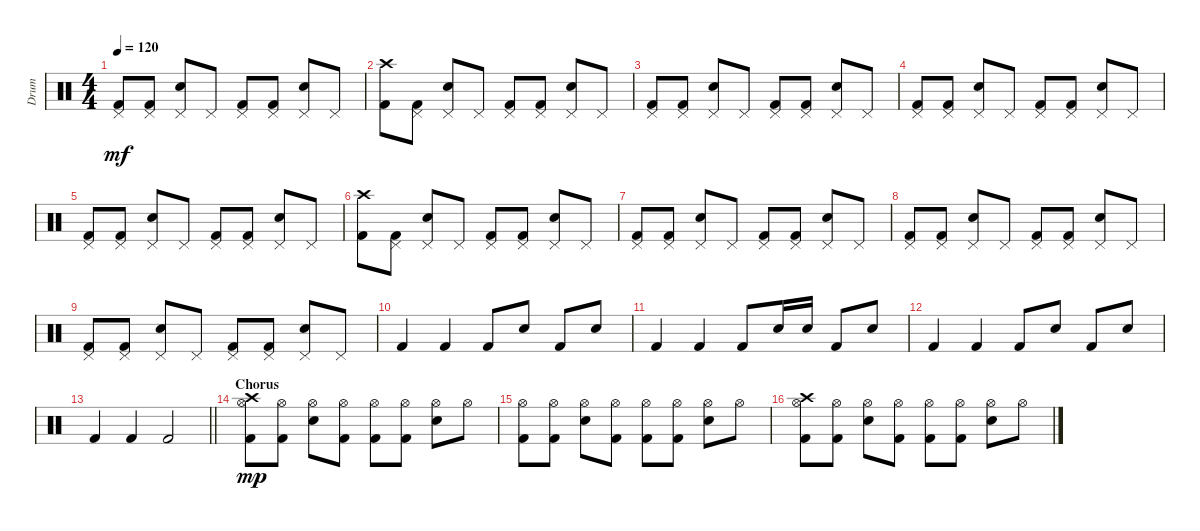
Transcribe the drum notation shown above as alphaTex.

\track ("Drum" "Drum") {instrument percussion}
\staff {score}
\articulation defaults
\ts (4 4)
\tempo 120
\clef neutral
\ks c
("Pedal Hi-Hat (hit)" "Kick (hit) 2").8{dy mf} ("Pedal Hi-Hat (hit)" "Kick (hit) 2").8 ("Pedal Hi-Hat (hit)" "Snare (hit) 2").8 "Pedal Hi-Hat (hit)".8 ("Pedal Hi-Hat (hit)" "Kick (hit) 2").8 ("Pedal Hi-Hat (hit)" "Kick (hit) 2").8 ("Pedal Hi-Hat (hit)" "Snare (hit) 2").8 "Pedal Hi-Hat (hit)".8 |
("Crash high (hit)" "Kick (hit) 2").8 ("Pedal Hi-Hat (hit)" "Kick (hit) 2").8 ("Pedal Hi-Hat (hit)" "Snare (hit) 2").8 "Pedal Hi-Hat (hit)".8 ("Pedal Hi-Hat (hit)" "Kick (hit) 2").8 ("Pedal Hi-Hat (hit)" "Kick (hit) 2").8 ("Pedal Hi-Hat (hit)" "Snare (hit) 2").8 "Pedal Hi-Hat (hit)".8 |
("Pedal Hi-Hat (hit)" "Kick (hit) 2").8 ("Pedal Hi-Hat (hit)" "Kick (hit) 2").8 ("Pedal Hi-Hat (hit)" "Snare (hit) 2").8 "Pedal Hi-Hat (hit)".8 ("Pedal Hi-Hat (hit)" "Kick (hit) 2").8 ("Pedal Hi-Hat (hit)" "Kick (hit) 2").8 ("Pedal Hi-Hat (hit)" "Snare (hit) 2").8 "Pedal Hi-Hat (hit)".8 |
("Pedal Hi-Hat (hit)" "Kick (hit) 2").8 ("Pedal Hi-Hat (hit)" "Kick (hit) 2").8 ("Pedal Hi-Hat (hit)" "Snare (hit) 2").8 "Pedal Hi-Hat (hit)".8 ("Pedal Hi-Hat (hit)" "Kick (hit) 2").8 ("Pedal Hi-Hat (hit)" "Kick (hit) 2").8 ("Pedal Hi-Hat (hit)" "Snare (hit) 2").8 "Pedal Hi-Hat (hit)".8 |
("Pedal Hi-Hat (hit)" "Kick (hit) 2").8 ("Pedal Hi-Hat (hit)" "Kick (hit) 2").8 ("Pedal Hi-Hat (hit)" "Snare (hit) 2").8 "Pedal Hi-Hat (hit)".8 ("Pedal Hi-Hat (hit)" "Kick (hit) 2").8 ("Pedal Hi-Hat (hit)" "Kick (hit) 2").8 ("Pedal Hi-Hat (hit)" "Snare (hit) 2").8 "Pedal Hi-Hat (hit)".8 |
("Crash high (hit)" "Kick (hit) 2").8 ("Pedal Hi-Hat (hit)" "Kick (hit) 2").8 ("Pedal Hi-Hat (hit)" "Snare (hit) 2").8 "Pedal Hi-Hat (hit)".8 ("Pedal Hi-Hat (hit)" "Kick (hit) 2").8 ("Pedal Hi-Hat (hit)" "Kick (hit) 2").8 ("Pedal Hi-Hat (hit)" "Snare (hit) 2").8 "Pedal Hi-Hat (hit)".8 |
("Pedal Hi-Hat (hit)" "Kick (hit) 2").8 ("Pedal Hi-Hat (hit)" "Kick (hit) 2").8 ("Pedal Hi-Hat (hit)" "Snare (hit) 2").8 "Pedal Hi-Hat (hit)".8 ("Pedal Hi-Hat (hit)" "Kick (hit) 2").8 ("Pedal Hi-Hat (hit)" "Kick (hit) 2").8 ("Pedal Hi-Hat (hit)" "Snare (hit) 2").8 "Pedal Hi-Hat (hit)".8 |
("Pedal Hi-Hat (hit)" "Kick (hit) 2").8 ("Pedal Hi-Hat (hit)" "Kick (hit) 2").8 ("Pedal Hi-Hat (hit)" "Snare (hit) 2").8 "Pedal Hi-Hat (hit)".8 ("Pedal Hi-Hat (hit)" "Kick (hit) 2").8 ("Pedal Hi-Hat (hit)" "Kick (hit) 2").8 ("Pedal Hi-Hat (hit)" "Snare (hit) 2").8 "Pedal Hi-Hat (hit)".8 |
("Pedal Hi-Hat (hit)" "Kick (hit) 2").8 ("Pedal Hi-Hat (hit)" "Kick (hit) 2").8 ("Pedal Hi-Hat (hit)" "Snare (hit) 2").8 "Pedal Hi-Hat (hit)".8 ("Pedal Hi-Hat (hit)" "Kick (hit) 2").8 ("Pedal Hi-Hat (hit)" "Kick (hit) 2").8 ("Pedal Hi-Hat (hit)" "Snare (hit) 2").8 "Pedal Hi-Hat (hit)".8 |
"Kick (hit) 2".4 "Kick (hit) 2".4 "Kick (hit) 2".8 "Snare (hit) 2".8 "Kick (hit) 2".8 "Snare (hit) 2".8 |
"Kick (hit) 2".4 "Kick (hit) 2".4 "Kick (hit) 2".8 "Snare (hit) 2".16 "Snare (hit) 2".16 "Kick (hit) 2".8 "Snare (hit) 2".8 |
"Kick (hit) 2".4 "Kick (hit) 2".4 "Kick (hit) 2".8 "Snare (hit) 2".8 "Kick (hit) 2".8 "Snare (hit) 2".8 |
\barLineRight lightlight "Kick (hit) 2".4 "Kick (hit) 2".4 "Kick (hit) 2".2
|
\section ("" "Chorus")
("Hi-Hat (open)" "Crash high (hit)" "Kick (hit) 2").8{dy mp} ("Hi-Hat (open)" "Kick (hit) 2").8 ("Hi-Hat (open)" "Snare (hit) 2").8 ("Hi-Hat (open)" "Kick (hit) 2").8 ("Hi-Hat (open)" "Kick (hit) 2").8 ("Hi-Hat (open)" "Kick (hit) 2").8 ("Hi-Hat (open)" "Snare (hit) 2").8 "Hi-Hat (open)".8 |
("Hi-Hat (open)" "Kick (hit) 2").8 ("Hi-Hat (open)" "Kick (hit) 2").8 ("Hi-Hat (open)" "Snare (hit) 2").8 ("Hi-Hat (open)" "Kick (hit) 2").8 ("Hi-Hat (open)" "Kick (hit) 2").8 ("Hi-Hat (open)" "Kick (hit) 2").8 ("Hi-Hat (open)" "Snare (hit) 2").8 "Hi-Hat (open)".8 |
("Hi-Hat (open)" "Crash high (hit)" "Kick (hit) 2").8 ("Hi-Hat (open)" "Kick (hit) 2").8 ("Hi-Hat (open)" "Snare (hit) 2").8 ("Hi-Hat (open)" "Kick (hit) 2").8 ("Hi-Hat (open)" "Kick (hit) 2").8 ("Hi-Hat (open)" "Kick (hit) 2").8 ("Hi-Hat (open)" "Snare (hit) 2").8 "Hi-Hat (open)".8
